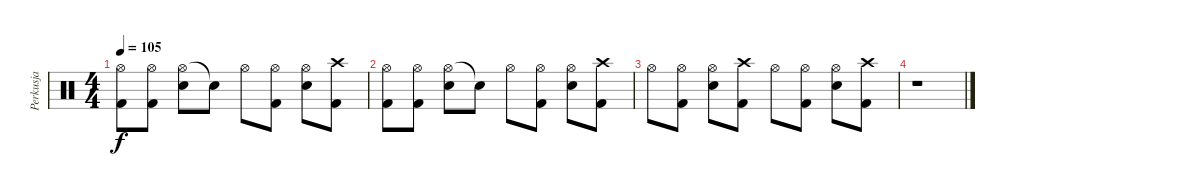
\track ("Perkusja" "Perkusja") {instrument percussion}
\staff {score}
\articulation defaults
\ts (4 4)
\tempo 105
\clef neutral
\ks c
("Hi-Hat (open)" "Kick (hit) 2").8{dy f} ("Hi-Hat (open)" "Kick (hit) 2").8 ("Hi-Hat (open)" "Snare (hit) 2").8 "Snare (hit)"{t}.8 "Hi-Hat (open)".8 ("Hi-Hat (open)" "Kick (hit) 2").8 ("Hi-Hat (open)" "Snare (hit) 2").8 ("Crash high (hit)" "Kick (hit) 2").8 |
("Hi-Hat (open)" "Kick (hit) 2").8 ("Hi-Hat (open)" "Kick (hit) 2").8 ("Hi-Hat (open)" "Snare (hit) 2").8 "Snare (hit)"{t}.8 "Hi-Hat (open)".8 ("Hi-Hat (open)" "Kick (hit) 2").8 ("Hi-Hat (open)" "Snare (hit) 2").8 ("Crash high (hit)" "Kick (hit) 2").8 |
"Hi-Hat (open)".8 ("Hi-Hat (open)" "Kick (hit) 2").8 ("Hi-Hat (open)" "Snare (hit) 2").8 ("Crash high (hit)" "Kick (hit) 2").8 "Hi-Hat (open)".8 ("Hi-Hat (open)" "Kick (hit) 2").8 ("Hi-Hat (open)" "Snare (hit) 2").8 ("Crash high (hit)" "Kick (hit) 2").8 |
r.1
